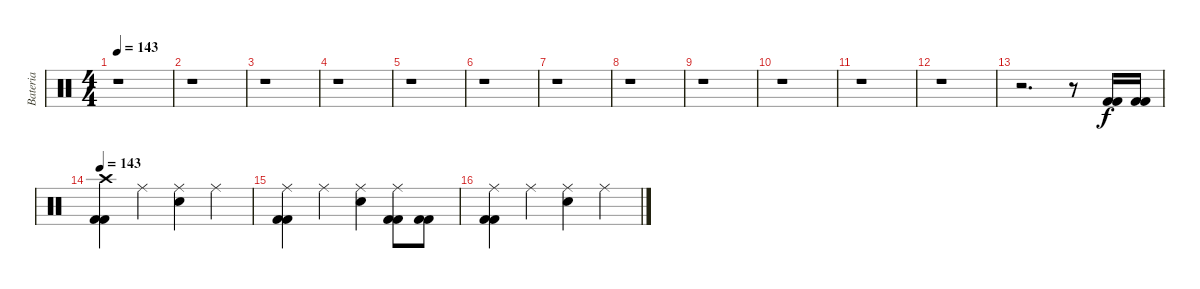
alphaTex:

\track ("Bateria" "Bateria") {instrument percussion}
\staff {score}
\articulation defaults
\ts (4 4)
\tempo 143
\tempo 120
\tempo 143
\clef neutral
\ks c
r.1{dy f} |
r.1 |
r.1 |
r.1 |
r.1 |
r.1 |
r.1 |
r.1 |
r.1 |
r.1 |
r.1 |
r.1 |
r.2{d} r.8 ("Kick (hit) 2" "Kick (hit) 2").16 ("Kick (hit) 2" "Kick (hit) 2").16 |
\tempo 143
("Kick (hit) 2" "Kick (hit) 2" "Crash high (hit)").4 "Ride (middle)".4 ("Snare (hit) 2" "Ride (middle)").4 "Ride (middle)".4 |
("Kick (hit) 2" "Kick (hit) 2" "Ride (middle)").4 "Ride (middle)".4 ("Snare (hit) 2" "Ride (middle)").4 ("Kick (hit) 2" "Kick (hit) 2" "Ride (middle)").8 ("Kick (hit) 2" "Kick (hit) 2").8 |
("Kick (hit) 2" "Kick (hit) 2" "Ride (middle)").4 "Ride (middle)".4 ("Snare (hit) 2" "Ride (middle)").4 "Ride (middle)".4
